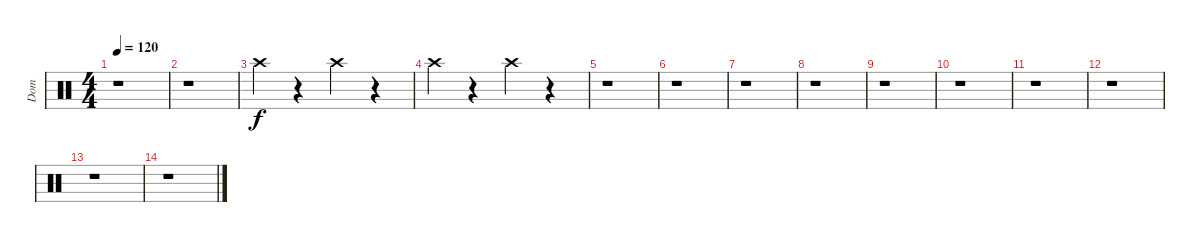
\track ("Dom" "Dom") {instrument percussion}
\staff {score}
\articulation defaults
\ts (4 4)
\tempo 120
\clef neutral
\ks c
r.1{dy f} |
r.1 |
"Crash high (hit)".4 r.4 "Crash high (hit)".4 r.4 |
"Crash high (hit)".4 r.4 "Crash high (hit)".4 r.4 |
r.1 |
r.1 |
r.1 |
r.1 |
r.1 |
r.1 |
r.1 |
r.1 |
r.1 |
r.1
